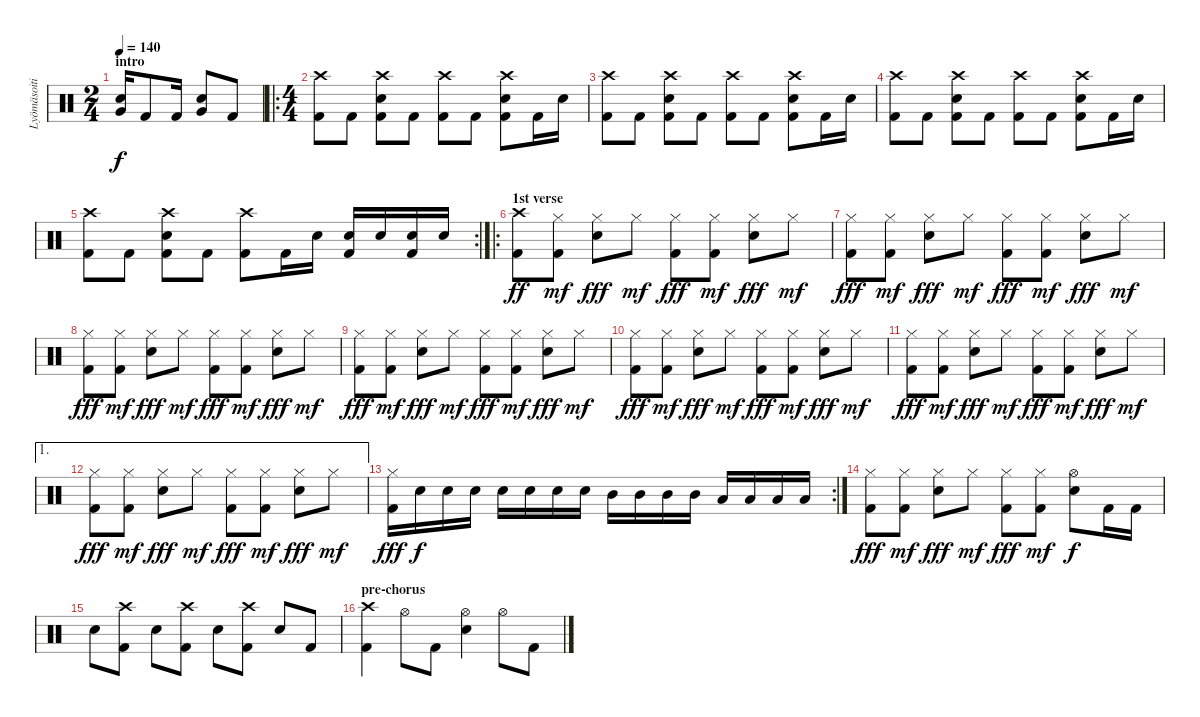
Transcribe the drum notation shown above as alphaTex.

\track ("Lyömäsoitin" "Lyömäsoiti") {instrument percussion}
\staff {score}
\articulation defaults
\ts (2 4)
\section ("" "intro")
\tempo 140
\clef neutral
\ks c
("Very Low Tom (hit)" "Snare (hit) 2").16{dy f} "Kick (hit) 2".8 "Kick (hit) 2".16 ("Very Low Tom (hit)" "Snare (hit) 2").8 "Kick (hit) 2".8 |
\ro
\ts (4 4)
("Kick (hit) 2" "Crash high (hit)").8 "Kick (hit) 2".8 ("Kick (hit) 2" "Crash high (hit)" "Snare (hit) 2").8 "Kick (hit) 2".8 ("Kick (hit) 2" "Crash high (hit)").8 "Kick (hit) 2".8 ("Kick (hit) 2" "Crash high (hit)" "Snare (hit) 2").8 "Kick (hit) 2".16 "Snare (hit) 2".16 |
("Kick (hit) 2" "Crash high (hit)").8 "Kick (hit) 2".8 ("Kick (hit) 2" "Crash high (hit)" "Snare (hit) 2").8 "Kick (hit) 2".8 ("Kick (hit) 2" "Crash high (hit)").8 "Kick (hit) 2".8 ("Kick (hit) 2" "Crash high (hit)" "Snare (hit) 2").8 "Kick (hit) 2".16 "Snare (hit) 2".16 |
("Kick (hit) 2" "Crash high (hit)").8 "Kick (hit) 2".8 ("Kick (hit) 2" "Crash high (hit)" "Snare (hit) 2").8 "Kick (hit) 2".8 ("Kick (hit) 2" "Crash high (hit)").8 "Kick (hit) 2".8 ("Kick (hit) 2" "Crash high (hit)" "Snare (hit) 2").8 "Kick (hit) 2".16 "Snare (hit) 2".16 |
\rc 2
("Kick (hit) 2" "Crash high (hit)").8 "Kick (hit) 2".8 ("Kick (hit) 2" "Crash high (hit)" "Snare (hit) 2").8 "Kick (hit) 2".8 ("Kick (hit) 2" "Crash high (hit)").8 "Kick (hit) 2".16 "Snare (hit) 2".16 ("Kick (hit) 2" "Snare (hit) 2").16 "Snare (hit) 2".16 ("Kick (hit) 2" "Snare (hit) 2").16 "Snare (hit) 2".16 |
\ro
\section ("" "1st verse")
("Kick (hit) 2" "Crash high (hit)").8{dy ff volume 10} ("Kick (hit) 2" "Hi-Hat (closed)").8{dy mf} ("Hi-Hat (closed)" "Snare (hit) 2").8{dy fff} "Hi-Hat (closed)".8{dy mf} ("Kick (hit) 2" "Hi-Hat (closed)").8{dy fff} ("Kick (hit) 2" "Hi-Hat (closed)").8{dy mf} ("Hi-Hat (closed)" "Snare (hit) 2").8{dy fff} "Hi-Hat (closed)".8{dy mf} |
("Kick (hit) 2" "Hi-Hat (closed)").8{dy fff} ("Kick (hit) 2" "Hi-Hat (closed)").8{dy mf} ("Hi-Hat (closed)" "Snare (hit) 2").8{dy fff} "Hi-Hat (closed)".8{dy mf} ("Kick (hit) 2" "Hi-Hat (closed)").8{dy fff} ("Kick (hit) 2" "Hi-Hat (closed)").8{dy mf} ("Hi-Hat (closed)" "Snare (hit) 2").8{dy fff} "Hi-Hat (closed)".8{dy mf} |
("Kick (hit) 2" "Hi-Hat (closed)").8{dy fff} ("Kick (hit) 2" "Hi-Hat (closed)").8{dy mf} ("Hi-Hat (closed)" "Snare (hit) 2").8{dy fff} "Hi-Hat (closed)".8{dy mf} ("Kick (hit) 2" "Hi-Hat (closed)").8{dy fff} ("Kick (hit) 2" "Hi-Hat (closed)").8{dy mf} ("Hi-Hat (closed)" "Snare (hit) 2").8{dy fff} "Hi-Hat (closed)".8{dy mf} |
("Kick (hit) 2" "Hi-Hat (closed)").8{dy fff} ("Kick (hit) 2" "Hi-Hat (closed)").8{dy mf} ("Hi-Hat (closed)" "Snare (hit) 2").8{dy fff} "Hi-Hat (closed)".8{dy mf} ("Kick (hit) 2" "Hi-Hat (closed)").8{dy fff} ("Kick (hit) 2" "Hi-Hat (closed)").8{dy mf} ("Hi-Hat (closed)" "Snare (hit) 2").8{dy fff} "Hi-Hat (closed)".8{dy mf} |
("Kick (hit) 2" "Hi-Hat (closed)").8{dy fff} ("Kick (hit) 2" "Hi-Hat (closed)").8{dy mf} ("Hi-Hat (closed)" "Snare (hit) 2").8{dy fff} "Hi-Hat (closed)".8{dy mf} ("Kick (hit) 2" "Hi-Hat (closed)").8{dy fff} ("Kick (hit) 2" "Hi-Hat (closed)").8{dy mf} ("Hi-Hat (closed)" "Snare (hit) 2").8{dy fff} "Hi-Hat (closed)".8{dy mf} |
("Kick (hit) 2" "Hi-Hat (closed)").8{dy fff} ("Kick (hit) 2" "Hi-Hat (closed)").8{dy mf} ("Hi-Hat (closed)" "Snare (hit) 2").8{dy fff} "Hi-Hat (closed)".8{dy mf} ("Kick (hit) 2" "Hi-Hat (closed)").8{dy fff} ("Kick (hit) 2" "Hi-Hat (closed)").8{dy mf} ("Hi-Hat (closed)" "Snare (hit) 2").8{dy fff} "Hi-Hat (closed)".8{dy mf} |
\ae 1
("Kick (hit) 2" "Hi-Hat (closed)").8{dy fff} ("Kick (hit) 2" "Hi-Hat (closed)").8{dy mf} ("Hi-Hat (closed)" "Snare (hit) 2").8{dy fff} "Hi-Hat (closed)".8{dy mf} ("Kick (hit) 2" "Hi-Hat (closed)").8{dy fff} ("Kick (hit) 2" "Hi-Hat (closed)").8{dy mf} ("Hi-Hat (closed)" "Snare (hit) 2").8{dy fff} "Hi-Hat (closed)".8{dy mf} |
\rc 2
("Kick (hit) 2" "Hi-Hat (closed)").16{dy fff} "Snare (hit) 2".16{dy f} "Snare (hit) 2".16 "Snare (hit) 2".16 "Snare (hit) 2".16 "Snare (hit) 2".16 "Snare (hit) 2".16 "Snare (hit) 2".16 "Mid Tom (hit)".16 "Mid Tom (hit)".16 "Mid Tom (hit)".16 "Mid Tom (hit)".16 "Low Tom (hit)".16 "Low Tom (hit)".16 "Low Tom (hit)".16 "Low Tom (hit)".16 |
("Kick (hit) 2" "Hi-Hat (closed)").8{dy fff} ("Kick (hit) 2" "Hi-Hat (closed)").8{dy mf} ("Hi-Hat (closed)" "Snare (hit) 2").8{dy fff} "Hi-Hat (closed)".8{dy mf} ("Kick (hit) 2" "Hi-Hat (closed)").8{dy fff} ("Kick (hit) 2" "Hi-Hat (closed)").8{dy mf} ("Hi-Hat (open)" "Snare (hit) 2").8{dy f} "Kick (hit) 2".16 "Kick (hit) 2".16 |
"Snare (hit) 2".8 ("Kick (hit) 2" "Crash high (hit)").8 "Snare (hit) 2".8 ("Kick (hit) 2" "Crash high (hit)").8 "Snare (hit) 2".8 ("Kick (hit) 2" "Crash high (hit)").8 "Snare (hit) 2".8 "Kick (hit) 2".8 |
\section ("" "pre-chorus")
("Kick (hit) 2" "Crash high (hit)").4 "Hi-Hat (open)".8 "Kick (hit) 2".8 ("Hi-Hat (open)" "Snare (hit) 2").4 "Hi-Hat (open)".8 "Kick (hit) 2".8
